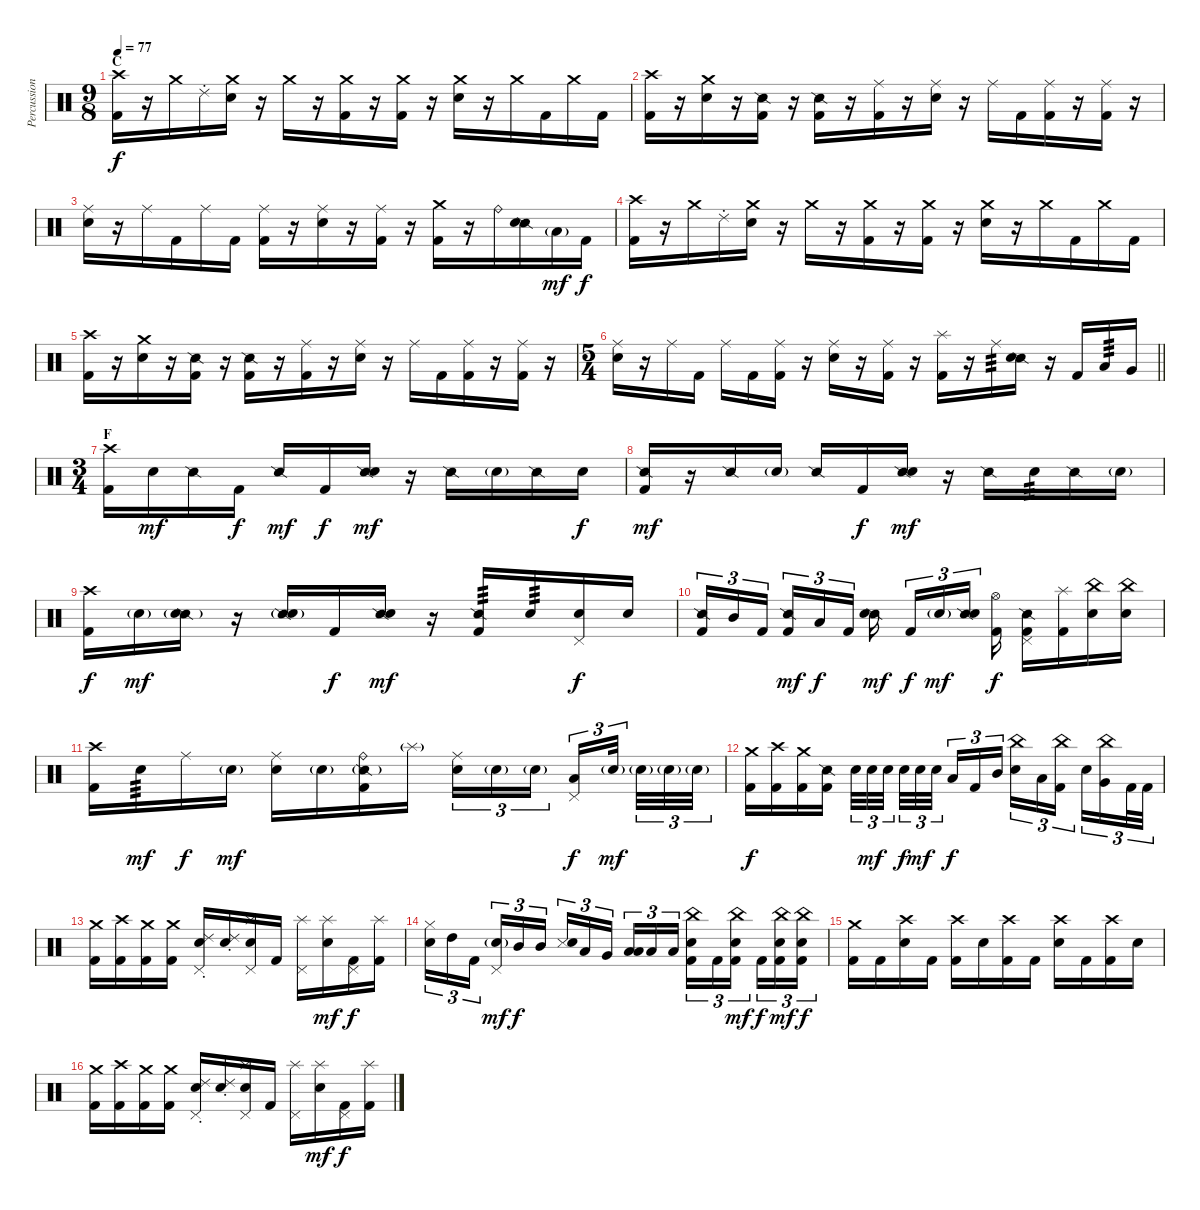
\track ("Percussion" "Percussion") {instrument percussion}
\staff {score}
\articulation defaults
\ts (9 8)
\section ("" "C")
\tempo 77
\clef neutral
\ks c
("Crash high (hit)" "Kick (hit) 2").16{dy f} r.16 "Crash medium (hit)".16 "Ride (choke) 2".16 ("Crash medium (hit)" "Snare (hit) 2").16 r.16 "Crash medium (hit)".16 r.16 ("Crash medium (hit)" "Kick (hit) 2").16 r.16 ("Crash medium (hit)" "Kick (hit) 2").16 r.16 ("Crash medium (hit)" "Snare (hit) 2").16 r.16 "Crash medium (hit)".16 "Kick (hit) 2".16 "Crash medium (hit)".16 "Kick (hit) 2".16 |
("Crash high (hit)" "Kick (hit) 2").16 r.16 ("Crash medium (hit)" "Snare (hit) 2").16 r.16 ("Snare (side stick) 2" "Kick (hit) 2").16 r.16 ("Snare (side stick) 2" "Kick (hit) 2").16 r.16 ("Ride (middle)" "Kick (hit) 2").16 r.16 ("Ride (middle)" "Snare (hit) 2").16 r.16 "Ride (middle)".16 "Kick (hit) 2".16 ("Ride (middle)" "Kick (hit) 2").16 r.16 ("Ride (middle)" "Kick (hit) 2").16 r.16 |
("Ride (middle)" "Snare (hit) 2").16 r.16 "Ride (middle)".16 "Kick (hit) 2".16 "Ride (middle)".16 "Kick (hit) 2".16 ("Ride (middle)" "Kick (hit) 2").16 r.16 ("Ride (middle)" "Snare (hit) 2").16 r.16 ("Ride (middle)" "Kick (hit) 2").16 r.16 ("Crash medium (hit)" "Kick (hit) 2").16 r.16 "Ride (bell)".16 ("Snare (side stick) 2" "Snare (hit) 2").16 "Low Tom (hit)"{g}.16{dy mf} "Kick (hit) 2".16{dy f} |
("Crash high (hit)" "Kick (hit) 2").16 r.16 "Crash medium (hit)".16 "Ride (choke) 2".16 ("Crash medium (hit)" "Snare (hit) 2").16 r.16 "Crash medium (hit)".16 r.16 ("Crash medium (hit)" "Kick (hit) 2").16 r.16 ("Crash medium (hit)" "Kick (hit) 2").16 r.16 ("Crash medium (hit)" "Snare (hit) 2").16 r.16 "Crash medium (hit)".16 "Kick (hit) 2".16 "Crash medium (hit)".16 "Kick (hit) 2".16 |
("Crash high (hit)" "Kick (hit) 2").16 r.16 ("Crash medium (hit)" "Snare (hit) 2").16 r.16 ("Snare (side stick) 2" "Kick (hit) 2").16 r.16 ("Snare (side stick) 2" "Kick (hit) 2").16 r.16 ("Ride (middle)" "Kick (hit) 2").16 r.16 ("Ride (middle)" "Snare (hit) 2").16 r.16 "Ride (middle)".16 "Kick (hit) 2".16 ("Ride (middle)" "Kick (hit) 2").16 r.16 ("Ride (middle)" "Kick (hit) 2").16 r.16 |
\ts (5 4)
\barLineRight lightlight
("Ride (middle)" "Snare (hit) 2").16 r.16 "Ride (middle)".16 "Kick (hit) 2".16 "Ride (middle)".16 "Kick (hit) 2".16 ("Ride (middle)" "Kick (hit) 2").16 r.16 ("Ride (middle)" "Snare (hit) 2").16 r.16 ("Ride (middle)" "Kick (hit) 2").16 r.16 ("Splash (hit)" "Kick (hit) 2").16 r.16 "Ride (middle)".16{tp 3} ("Snare (side stick) 2" "Snare (hit) 2").16 r.16 "Kick (hit) 2".16 "Low Tom (hit)".16{tp 3} "Very Low Tom (hit)".16 |
\ts (3 4)
\section ("" "F")
("Crash high (hit)" "Kick (hit) 2").16 "Snare (hit) 2".16{dy mf} "Snare (side stick) 2".16 "Kick (hit) 2".16{dy f} "Snare (side stick) 2".16{dy mf} "Kick (hit) 2".16{dy f} ("Snare (side stick) 2" "Snare (hit) 2").16{dy mf} r.16 "Snare (side stick) 2".16 "Snare (hit) 2"{g}.16 "Snare (side stick) 2".16 "Snare (hit) 2".16{dy f} |
("Snare (side stick) 2" "Kick (hit) 2").16{dy mf} r.16 "Snare (side stick) 2".16 "Snare (hit) 2"{g}.16 "Snare (side stick) 2".16 "Kick (hit) 2".16{dy f} ("Snare (side stick) 2" "Snare (hit) 2").16{dy mf} r.16 "Snare (side stick) 2".16 "Snare (hit) 2".16{tp 3} "Snare (side stick) 2".16 "Snare (hit) 2"{g}.16 |
("Crash high (hit)" "Kick (hit) 2").16{dy f} "Snare (hit) 2"{g}.16{dy mf} ("Snare (side stick) 2" "Snare (hit) 2"{g}).16 r.16 ("Snare (side stick) 2" "Snare (hit) 2"{g}).16 "Kick (hit) 2".16{dy f} ("Snare (side stick) 2" "Snare (hit) 2").16{dy mf} r.16 ("Snare (side stick) 2" "Kick (hit) 2").16{tp 3} "Snare (hit) 2".16{tp 3} ("Pedal Hi-Hat (hit)" "Snare (hit) 2").16{dy f} "Snare (hit) 2".16 |
("Snare (side stick) 2" "Kick (hit) 2").16{tu (3 2)} "Mid Tom (hit)".16{tu (3 2)} "Kick (hit) 2".16{tu (3 2) beam splitsecondary} ("Snare (side stick) 2" "Kick (hit) 2").16{tu (3 2) dy mf} "Low Tom (hit)".16{tu (3 2) dy f} "Kick (hit) 2".16{tu (3 2)} ("Snare (side stick) 2" "Snare (hit) 2").16{dy mf beam splitsecondary} "Kick (hit) 2".16{tu (3 2) dy f} "Snare (hit) 2"{g}.16{tu (3 2) dy mf} ("Snare (side stick) 2" "Snare (hit) 2").16{tu (3 2) beam splitsecondary} ("Hi-Hat (open)" "Kick (hit) 2").16{dy f} ("Snare (side stick) 2" "Pedal Hi-Hat (hit)" "Kick (hit) 2").16 ("Splash (hit)" "Kick (hit) 2").16 ("China (hit)" "Snare (hit) 2").16 ("China (hit)" "Snare (hit) 2").16 |
("Crash high (hit)" "Kick (hit) 2").16 "Snare (hit) 2".16{tp 3 dy mf} "Ride (middle)".16{dy f} "Snare (hit) 2"{g}.16{dy mf} ("Ride (middle)" "Snare (hit) 2").16 "Snare (hit) 2"{g}.16 ("Ride (bell)" "Snare (side stick) 2"{g} "Kick (hit) 2").16 "Splash (hit)"{g}.16 ("Ride (middle)" "Snare (hit) 2").16{tu (3 2)} "Snare (hit) 2"{g}.16{tu (3 2)} "Snare (hit) 2"{g}.16{tu (3 2) beam splitsecondary} ("Pedal Hi-Hat (hit)" "Low Tom (hit)").16{tu (3 2) dy f} "Snare (hit) 2"{g}.32{tu (3 2) dy mf beam splitsecondary} "Snare (hit) 2"{g}.32{tu (3 2)} "Snare (hit) 2"{g}.32{tu (3 2)} "Snare (hit) 2"{g}.32{tu (3 2)} |
("Crash medium (hit)" "Kick (hit) 2").16{dy f} ("Crash high (hit)" "Kick (hit) 2").16 ("Crash medium (hit)" "Kick (hit) 2").16 ("Snare (side stick) 2" "Kick (hit) 2").16 "Snare (hit) 2".32{tu (3 2)} "Snare (hit) 2".32{tu (3 2) dy mf} "Snare (hit) 2".32{tu (3 2) beam splitsecondary} "Snare (hit) 2".32{tu (3 2) dy f} "Snare (hit) 2".32{tu (3 2) dy mf} "Snare (hit) 2".32{tu (3 2) beam splitsecondary} "Low Tom (hit)".16{tu (3 2) dy f} "Kick (hit) 2".16{tu (3 2)} "Mid Tom (hit)".16{tu (3 2)} ("China (hit)" "Snare (hit) 2").16{tu (3 2)} "Low Tom (hit)".16{tu (3 2)} ("China (hit)" "Kick (hit) 2").16{tu (3 2) beam splitsecondary} "Snare (hit) 2".16{tu (3 2)} ("China (hit)" "Very Low Tom (hit)").16{tu (3 2)} "Kick (hit) 2".32{tu (3 2)} "Kick (hit) 2".32{tu (3 2)} |
("Crash medium (hit)" "Kick (hit) 2").16 ("Crash high (hit)" "Kick (hit) 2").16 ("Crash medium (hit)" "Kick (hit) 2").16 ("Crash medium (hit)" "Kick (hit) 2").16 ("Ride (choke) 2" "Pedal Hi-Hat (hit)" "Snare (hit) 2").16 ("Ride (choke) 2" "Snare (hit) 2").16 ("Splash (hit)" "Pedal Hi-Hat (hit)" "Snare (hit) 2").16 "Kick (hit) 2".16 ("Splash (hit)" "Pedal Hi-Hat (hit)").16 ("Splash (hit)" "Snare (hit) 2").16{dy mf} ("Pedal Hi-Hat (hit)" "Kick (hit) 2").16{dy f} ("Splash (hit)" "Kick (hit) 2").16 |
("Hi-Hat (closed)" "Snare (hit) 2").16{tu (3 2)} "High Tom (hit)".16{tu (3 2)} "Kick (hit) 2".16{tu (3 2) beam splitsecondary} ("Pedal Hi-Hat (hit)" "Snare (hit) 2"{g}).16{tu (3 2) dy mf} "Mid Tom (hit)".16{tu (3 2) dy f} "Mid Tom (hit)".16{tu (3 2)} ("Metronome (hit)" "Snare (hit) 2").16{tu (3 2) bu 480} "Low Tom (hit)".16{tu (3 2)} "Very Low Tom (hit)".16{tu (3 2) beam splitsecondary} ("Low Floor Tom (hit)" "Low Floor Tom (hit)").16{tu (3 2) bu 480} "Low Floor Tom (hit)".16{tu (3 2)} "Low Floor Tom (hit)".16{tu (3 2)} ("China (hit)" "Snare (hit) 2" "Kick (hit) 2").16{tu (3 2)} "Kick (hit) 2".16{tu (3 2)} ("China (hit)" "Snare (hit) 2" "Kick (hit) 2").16{tu (3 2) dy mf beam splitsecondary} "Kick (hit) 2".16{tu (3 2) dy f} ("China (hit)" "Snare (hit) 2" "Kick (hit) 2").16{tu (3 2) dy mf} ("China (hit)" "Snare (hit) 2" "Kick (hit) 2").16{tu (3 2) dy f} |
("Crash medium (hit)" "Kick (hit) 2").16 "Kick (hit) 2".16 ("Crash high (hit)" "Snare (hit) 2").16 "Kick (hit) 2".16 ("Crash high (hit)" "Kick (hit) 2").16 "Snare (hit) 2".16 ("Crash high (hit)" "Kick (hit) 2").16 "Kick (hit) 2".16 ("Crash high (hit)" "Snare (hit) 2").16 "Kick (hit) 2".16 ("Crash high (hit)" "Kick (hit) 2").16 "Snare (hit) 2".16 |
("Crash medium (hit)" "Kick (hit) 2").16 ("Crash high (hit)" "Kick (hit) 2").16 ("Crash medium (hit)" "Kick (hit) 2").16 ("Crash medium (hit)" "Kick (hit) 2").16 ("Ride (choke) 2" "Pedal Hi-Hat (hit)" "Snare (hit) 2").16 ("Ride (choke) 2" "Snare (hit) 2").16 ("Splash (hit)" "Pedal Hi-Hat (hit)" "Snare (hit) 2").16 "Kick (hit) 2".16 ("Splash (hit)" "Pedal Hi-Hat (hit)").16 ("Splash (hit)" "Snare (hit) 2").16{dy mf} ("Pedal Hi-Hat (hit)" "Kick (hit) 2").16{dy f} ("Splash (hit)" "Kick (hit) 2").16
